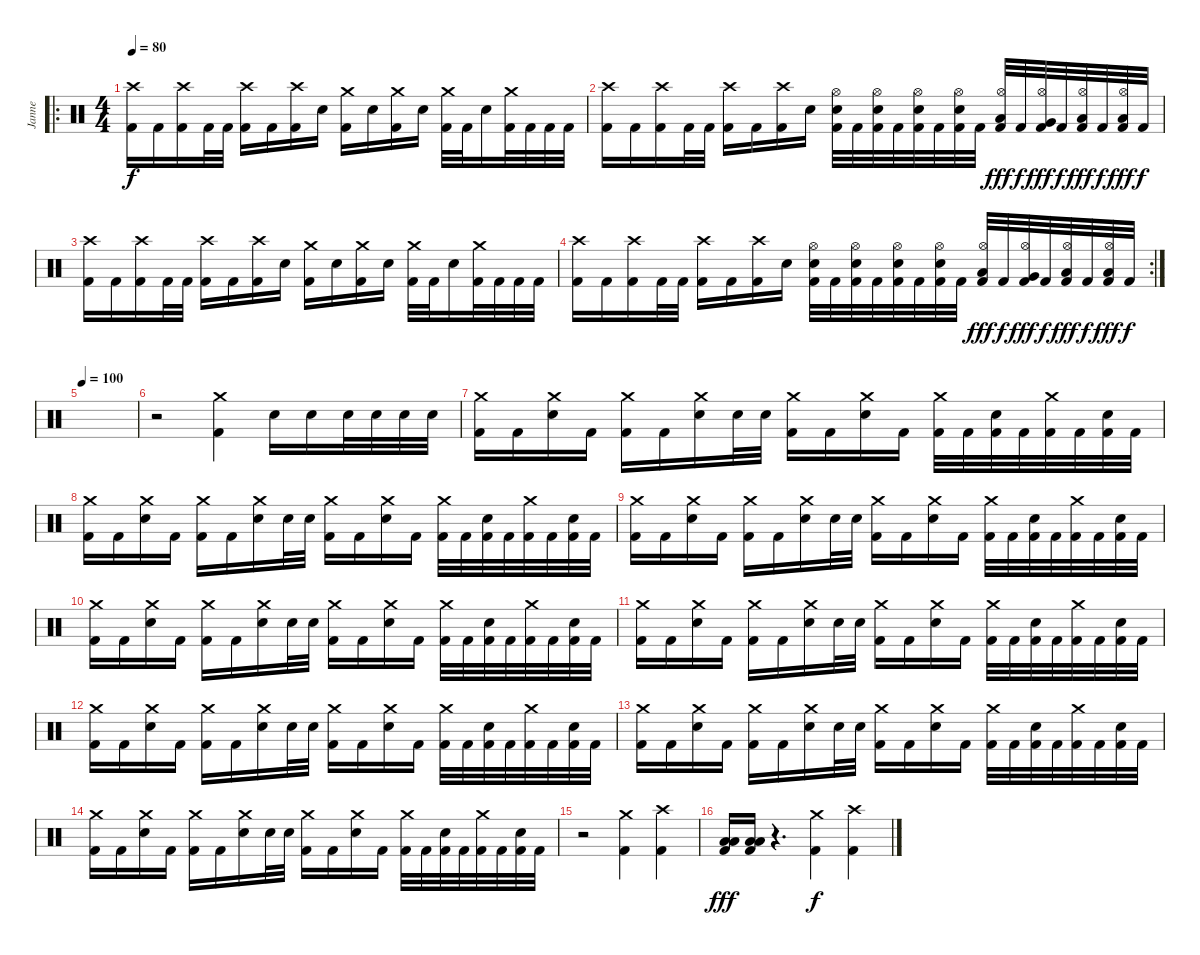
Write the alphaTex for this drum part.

\track ("Janne" "Janne") {instrument percussion}
\staff {score}
\articulation defaults
\ro
\ts (4 4)
\tempo 80
\clef neutral
\ks c
("Crash high (hit)" "Kick (hit) 2").16{dy f} "Kick (hit) 2".16 ("Crash high (hit)" "Kick (hit) 2").16 "Kick (hit) 2".32 "Kick (hit) 2".32 ("Crash high (hit)" "Kick (hit) 2").16 "Kick (hit) 2".16 ("Crash high (hit)" "Kick (hit) 2").16 "Electric Snare (hit)".16 ("Crash medium (hit)" "Kick (hit) 2").16 "Electric Snare (hit)".16 ("Crash medium (hit)" "Kick (hit) 2").16 "Electric Snare (hit)".16 ("Crash medium (hit)" "Kick (hit) 2").32 "Kick (hit) 2".32 "Electric Snare (hit)".16 ("Crash medium (hit)" "Kick (hit) 2").32 "Kick (hit) 2".32 "Kick (hit) 2".32 "Kick (hit) 2".32 |
("Crash high (hit)" "Kick (hit) 2").16 "Kick (hit) 2".16 ("Crash high (hit)" "Kick (hit) 2").16 "Kick (hit) 2".32 "Kick (hit) 2".32 ("Crash high (hit)" "Kick (hit) 2").16 "Kick (hit) 2".16 ("Crash high (hit)" "Kick (hit) 2").16 "Electric Snare (hit)".16 ("Hi-Hat (open)" "Electric Snare (hit)" "Kick (hit) 2").32 "Kick (hit) 2".32 ("Hi-Hat (open)" "Electric Snare (hit)" "Kick (hit) 2").32 "Kick (hit) 2".32 ("Hi-Hat (open)" "Electric Snare (hit)" "Kick (hit) 2").32 "Kick (hit) 2".32 ("Hi-Hat (open)" "Electric Snare (hit)" "Kick (hit) 2").32 "Kick (hit) 2".32 ("Hi-Hat (open)" "Low Tom (hit)" "Kick (hit) 2").32{dy fff} "Kick (hit) 2".32{dy f} ("Hi-Hat (open)" "Very Low Tom (hit)" "Kick (hit) 2").32{dy fff} "Kick (hit) 2".32{dy f} ("Hi-Hat (open)" "Low Floor Tom (hit)" "Kick (hit) 2").32{dy fff} "Kick (hit) 2".32{dy f} ("Hi-Hat (open)" "Low Floor Tom (hit)" "Kick (hit) 2").32{dy fff} "Kick (hit) 2".32{dy f} |
("Crash high (hit)" "Kick (hit) 2").16 "Kick (hit) 2".16 ("Crash high (hit)" "Kick (hit) 2").16 "Kick (hit) 2".32 "Kick (hit) 2".32 ("Crash high (hit)" "Kick (hit) 2").16 "Kick (hit) 2".16 ("Crash high (hit)" "Kick (hit) 2").16 "Electric Snare (hit)".16 ("Crash medium (hit)" "Kick (hit) 2").16 "Electric Snare (hit)".16 ("Crash medium (hit)" "Kick (hit) 2").16 "Electric Snare (hit)".16 ("Crash medium (hit)" "Kick (hit) 2").32 "Kick (hit) 2".32 "Electric Snare (hit)".16 ("Crash medium (hit)" "Kick (hit) 2").32 "Kick (hit) 2".32 "Kick (hit) 2".32 "Kick (hit) 2".32 |
\rc 2
("Crash high (hit)" "Kick (hit) 2").16 "Kick (hit) 2".16 ("Crash high (hit)" "Kick (hit) 2").16 "Kick (hit) 2".32 "Kick (hit) 2".32 ("Crash high (hit)" "Kick (hit) 2").16 "Kick (hit) 2".16 ("Crash high (hit)" "Kick (hit) 2").16 "Electric Snare (hit)".16 ("Hi-Hat (open)" "Electric Snare (hit)" "Kick (hit) 2").32 "Kick (hit) 2".32 ("Hi-Hat (open)" "Electric Snare (hit)" "Kick (hit) 2").32 "Kick (hit) 2".32 ("Hi-Hat (open)" "Electric Snare (hit)" "Kick (hit) 2").32 "Kick (hit) 2".32 ("Hi-Hat (open)" "Electric Snare (hit)" "Kick (hit) 2").32 "Kick (hit) 2".32 ("Hi-Hat (open)" "Low Tom (hit)" "Kick (hit) 2").32{dy fff} "Kick (hit) 2".32{dy f} ("Hi-Hat (open)" "Very Low Tom (hit)" "Kick (hit) 2").32{dy fff} "Kick (hit) 2".32{dy f} ("Hi-Hat (open)" "Low Floor Tom (hit)" "Kick (hit) 2").32{dy fff} "Kick (hit) 2".32{dy f} ("Hi-Hat (open)" "Low Floor Tom (hit)" "Kick (hit) 2").32{dy fff} "Kick (hit) 2".32{dy f} |
\tempo 100
|
r.2 ("Crash medium (hit)" "Kick (hit) 2").4 "Electric Snare (hit)".16 "Electric Snare (hit)".16 "Electric Snare (hit)".32 "Electric Snare (hit)".32 "Electric Snare (hit)".32 "Electric Snare (hit)".32 |
("Crash medium (hit)" "Kick (hit) 2").16 "Kick (hit) 2".16 ("Crash medium (hit)" "Electric Snare (hit)").16 "Kick (hit) 2".16 ("Crash medium (hit)" "Kick (hit) 2").16 "Kick (hit) 2".16 ("Crash medium (hit)" "Electric Snare (hit)").16 "Electric Snare (hit)".32 "Electric Snare (hit)".32 ("Crash medium (hit)" "Kick (hit) 2").16 "Kick (hit) 2".16 ("Crash medium (hit)" "Electric Snare (hit)").16 "Kick (hit) 2".16 ("Crash medium (hit)" "Kick (hit) 2").32 "Kick (hit) 2".32 ("Electric Snare (hit)" "Kick (hit) 2").32 "Kick (hit) 2".32 ("Crash medium (hit)" "Kick (hit) 2").32 "Kick (hit) 2".32 ("Electric Snare (hit)" "Kick (hit) 2").32 "Kick (hit) 2".32 |
("Crash medium (hit)" "Kick (hit) 2").16 "Kick (hit) 2".16 ("Crash medium (hit)" "Electric Snare (hit)").16 "Kick (hit) 2".16 ("Crash medium (hit)" "Kick (hit) 2").16 "Kick (hit) 2".16 ("Crash medium (hit)" "Electric Snare (hit)").16 "Electric Snare (hit)".32 "Electric Snare (hit)".32 ("Crash medium (hit)" "Kick (hit) 2").16 "Kick (hit) 2".16 ("Crash medium (hit)" "Electric Snare (hit)").16 "Kick (hit) 2".16 ("Crash medium (hit)" "Kick (hit) 2").32 "Kick (hit) 2".32 ("Electric Snare (hit)" "Kick (hit) 2").32 "Kick (hit) 2".32 ("Crash medium (hit)" "Kick (hit) 2").32 "Kick (hit) 2".32 ("Electric Snare (hit)" "Kick (hit) 2").32 "Kick (hit) 2".32 |
("Crash medium (hit)" "Kick (hit) 2").16 "Kick (hit) 2".16 ("Crash medium (hit)" "Electric Snare (hit)").16 "Kick (hit) 2".16 ("Crash medium (hit)" "Kick (hit) 2").16 "Kick (hit) 2".16 ("Crash medium (hit)" "Electric Snare (hit)").16 "Electric Snare (hit)".32 "Electric Snare (hit)".32 ("Crash medium (hit)" "Kick (hit) 2").16 "Kick (hit) 2".16 ("Crash medium (hit)" "Electric Snare (hit)").16 "Kick (hit) 2".16 ("Crash medium (hit)" "Kick (hit) 2").32 "Kick (hit) 2".32 ("Electric Snare (hit)" "Kick (hit) 2").32 "Kick (hit) 2".32 ("Crash medium (hit)" "Kick (hit) 2").32 "Kick (hit) 2".32 ("Electric Snare (hit)" "Kick (hit) 2").32 "Kick (hit) 2".32 |
("Crash medium (hit)" "Kick (hit) 2").16 "Kick (hit) 2".16 ("Crash medium (hit)" "Electric Snare (hit)").16 "Kick (hit) 2".16 ("Crash medium (hit)" "Kick (hit) 2").16 "Kick (hit) 2".16 ("Crash medium (hit)" "Electric Snare (hit)").16 "Electric Snare (hit)".32 "Electric Snare (hit)".32 ("Crash medium (hit)" "Kick (hit) 2").16 "Kick (hit) 2".16 ("Crash medium (hit)" "Electric Snare (hit)").16 "Kick (hit) 2".16 ("Crash medium (hit)" "Kick (hit) 2").32 "Kick (hit) 2".32 ("Electric Snare (hit)" "Kick (hit) 2").32 "Kick (hit) 2".32 ("Crash medium (hit)" "Kick (hit) 2").32 "Kick (hit) 2".32 ("Electric Snare (hit)" "Kick (hit) 2").32 "Kick (hit) 2".32 |
("Crash medium (hit)" "Kick (hit) 2").16 "Kick (hit) 2".16 ("Crash medium (hit)" "Electric Snare (hit)").16 "Kick (hit) 2".16 ("Crash medium (hit)" "Kick (hit) 2").16 "Kick (hit) 2".16 ("Crash medium (hit)" "Electric Snare (hit)").16 "Electric Snare (hit)".32 "Electric Snare (hit)".32 ("Crash medium (hit)" "Kick (hit) 2").16 "Kick (hit) 2".16 ("Crash medium (hit)" "Electric Snare (hit)").16 "Kick (hit) 2".16 ("Crash medium (hit)" "Kick (hit) 2").32 "Kick (hit) 2".32 ("Electric Snare (hit)" "Kick (hit) 2").32 "Kick (hit) 2".32 ("Crash medium (hit)" "Kick (hit) 2").32 "Kick (hit) 2".32 ("Electric Snare (hit)" "Kick (hit) 2").32 "Kick (hit) 2".32 |
("Crash medium (hit)" "Kick (hit) 2").16 "Kick (hit) 2".16 ("Crash medium (hit)" "Electric Snare (hit)").16 "Kick (hit) 2".16 ("Crash medium (hit)" "Kick (hit) 2").16 "Kick (hit) 2".16 ("Crash medium (hit)" "Electric Snare (hit)").16 "Electric Snare (hit)".32 "Electric Snare (hit)".32 ("Crash medium (hit)" "Kick (hit) 2").16 "Kick (hit) 2".16 ("Crash medium (hit)" "Electric Snare (hit)").16 "Kick (hit) 2".16 ("Crash medium (hit)" "Kick (hit) 2").32 "Kick (hit) 2".32 ("Electric Snare (hit)" "Kick (hit) 2").32 "Kick (hit) 2".32 ("Crash medium (hit)" "Kick (hit) 2").32 "Kick (hit) 2".32 ("Electric Snare (hit)" "Kick (hit) 2").32 "Kick (hit) 2".32 |
("Crash medium (hit)" "Kick (hit) 2").16 "Kick (hit) 2".16 ("Crash medium (hit)" "Electric Snare (hit)").16 "Kick (hit) 2".16 ("Crash medium (hit)" "Kick (hit) 2").16 "Kick (hit) 2".16 ("Crash medium (hit)" "Electric Snare (hit)").16 "Electric Snare (hit)".32 "Electric Snare (hit)".32 ("Crash medium (hit)" "Kick (hit) 2").16 "Kick (hit) 2".16 ("Crash medium (hit)" "Electric Snare (hit)").16 "Kick (hit) 2".16 ("Crash medium (hit)" "Kick (hit) 2").32 "Kick (hit) 2".32 ("Electric Snare (hit)" "Kick (hit) 2").32 "Kick (hit) 2".32 ("Crash medium (hit)" "Kick (hit) 2").32 "Kick (hit) 2".32 ("Electric Snare (hit)" "Kick (hit) 2").32 "Kick (hit) 2".32 |
("Crash medium (hit)" "Kick (hit) 2").16 "Kick (hit) 2".16 ("Crash medium (hit)" "Electric Snare (hit)").16 "Kick (hit) 2".16 ("Crash medium (hit)" "Kick (hit) 2").16 "Kick (hit) 2".16 ("Crash medium (hit)" "Electric Snare (hit)").16 "Electric Snare (hit)".32 "Electric Snare (hit)".32 ("Crash medium (hit)" "Kick (hit) 2").16 "Kick (hit) 2".16 ("Crash medium (hit)" "Electric Snare (hit)").16 "Kick (hit) 2".16 ("Crash medium (hit)" "Kick (hit) 2").32 "Kick (hit) 2".32 ("Electric Snare (hit)" "Kick (hit) 2").32 "Kick (hit) 2".32 ("Crash medium (hit)" "Kick (hit) 2").32 "Kick (hit) 2".32 ("Electric Snare (hit)" "Kick (hit) 2").32 "Kick (hit) 2".32 |
r.2 ("Crash medium (hit)" "Kick (hit) 2").4 ("Crash high (hit)" "Kick (hit) 2").4 |
("Low Tom (hit)" "Low Floor Tom (hit)" "Kick (hit) 2").16{dy fff} ("Low Tom (hit)" "Low Floor Tom (hit)" "Kick (hit) 2").16 r.4{d} ("Crash medium (hit)" "Kick (hit) 2").4{dy f} ("Crash high (hit)" "Kick (hit) 2").4
